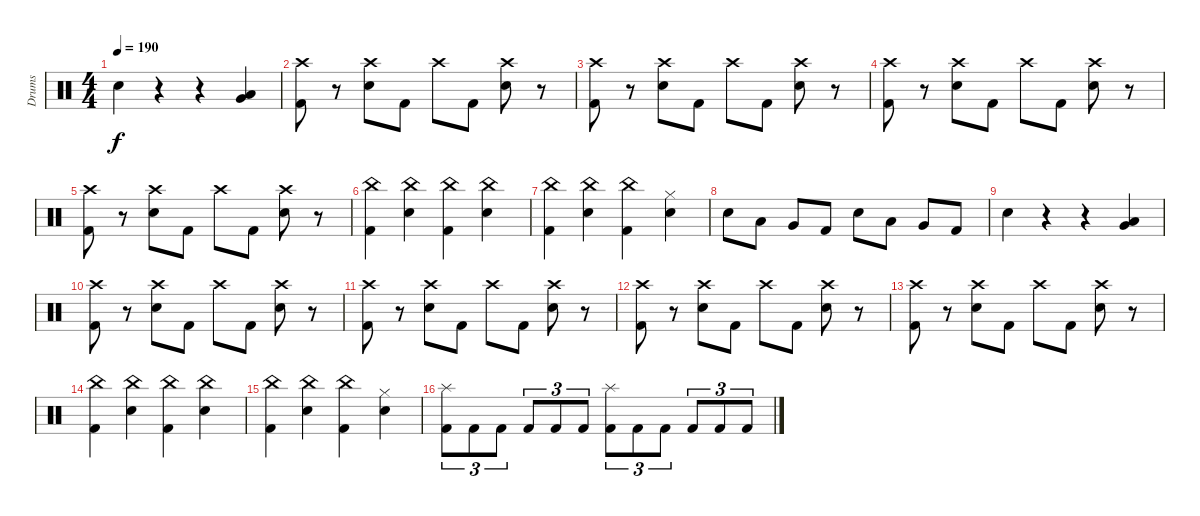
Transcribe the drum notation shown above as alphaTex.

\track ("Drums" "Drums") {instrument percussion}
\staff {score}
\articulation defaults
\ts (4 4)
\tempo 190
\clef neutral
\ks c "Snare (hit) 2".4{dy f}
r.4 r.4 ("Low Floor Tom (hit)" "Very Low Tom (hit)").4 |
("Crash high (hit)" "Kick (hit) 2").8 r.8 ("Crash high (hit)" "Snare (hit) 2").8 "Kick (hit) 2".8 "Crash high (hit)".8 "Kick (hit) 2".8 ("Crash high (hit)" "Snare (hit) 2").8 r.8 |
("Crash high (hit)" "Kick (hit) 2").8 r.8 ("Crash high (hit)" "Snare (hit) 2").8 "Kick (hit) 2".8 "Crash high (hit)".8 "Kick (hit) 2".8 ("Crash high (hit)" "Snare (hit) 2").8 r.8 |
("Crash high (hit)" "Kick (hit) 2").8 r.8 ("Crash high (hit)" "Snare (hit) 2").8 "Kick (hit) 2".8 "Crash high (hit)".8 "Kick (hit) 2".8 ("Crash high (hit)" "Snare (hit) 2").8 r.8 |
("Crash high (hit)" "Kick (hit) 2").8 r.8 ("Crash high (hit)" "Snare (hit) 2").8 "Kick (hit) 2".8 "Crash high (hit)".8 "Kick (hit) 2".8 ("Crash high (hit)" "Snare (hit) 2").8 r.8 |
("China (hit)" "Kick (hit) 2").4 ("China (hit)" "Snare (hit) 2").4 ("China (hit)" "Kick (hit) 2").4 ("China (hit)" "Snare (hit) 2").4 |
("China (hit)" "Kick (hit) 2").4 ("China (hit)" "Snare (hit) 2").4 ("China (hit)" "Kick (hit) 2").4 ("Hi-Hat (closed)" "Snare (hit) 2").4 |
"Snare (hit) 2".8 "Low Tom (hit)".8 "Very Low Tom (hit)".8 "Kick (hit) 2".8 "Snare (hit) 2".8 "Low Tom (hit)".8 "Very Low Tom (hit)".8 "Kick (hit) 2".8 |
"Snare (hit) 2".4 r.4 r.4 ("Low Floor Tom (hit)" "Very Low Tom (hit)").4 |
("Crash high (hit)" "Kick (hit) 2").8 r.8 ("Crash high (hit)" "Snare (hit) 2").8 "Kick (hit) 2".8 "Crash high (hit)".8 "Kick (hit) 2".8 ("Crash high (hit)" "Snare (hit) 2").8 r.8 |
("Crash high (hit)" "Kick (hit) 2").8 r.8 ("Crash high (hit)" "Snare (hit) 2").8 "Kick (hit) 2".8 "Crash high (hit)".8 "Kick (hit) 2".8 ("Crash high (hit)" "Snare (hit) 2").8 r.8 |
("Crash high (hit)" "Kick (hit) 2").8 r.8 ("Crash high (hit)" "Snare (hit) 2").8 "Kick (hit) 2".8 "Crash high (hit)".8 "Kick (hit) 2".8 ("Crash high (hit)" "Snare (hit) 2").8 r.8 |
("Crash high (hit)" "Kick (hit) 2").8 r.8 ("Crash high (hit)" "Snare (hit) 2").8 "Kick (hit) 2".8 "Crash high (hit)".8 "Kick (hit) 2".8 ("Crash high (hit)" "Snare (hit) 2").8 r.8 |
("China (hit)" "Kick (hit) 2").4 ("China (hit)" "Snare (hit) 2").4 ("China (hit)" "Kick (hit) 2").4 ("China (hit)" "Snare (hit) 2").4 |
("China (hit)" "Kick (hit) 2").4 ("China (hit)" "Snare (hit) 2").4 ("China (hit)" "Kick (hit) 2").4 ("Hi-Hat (closed)" "Snare (hit) 2").4 |
("Splash (hit)" "Kick (hit) 2").8{tu (3 2)} "Kick (hit) 2".8{tu (3 2)} "Kick (hit) 2".8{tu (3 2)} "Kick (hit) 2".8{tu (3 2)} "Kick (hit) 2".8{tu (3 2)} "Kick (hit) 2".8{tu (3 2)} ("Splash (hit)" "Kick (hit) 2").8{tu (3 2)} "Kick (hit) 2".8{tu (3 2)} "Kick (hit) 2".8{tu (3 2)} "Kick (hit) 2".8{tu (3 2)} "Kick (hit) 2".8{tu (3 2)} "Kick (hit) 2".8{tu (3 2)}
